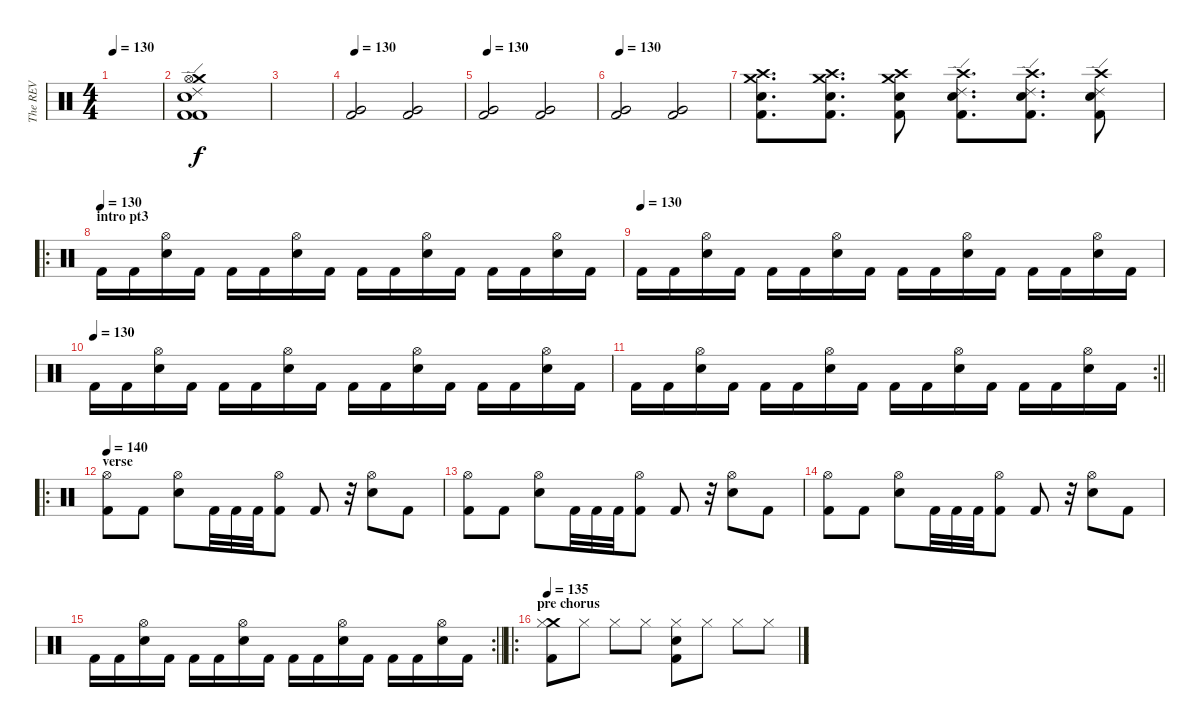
\track ("The REV" "The REV") {instrument percussion}
\staff {score}
\articulation defaults
\ts (4 4)
\tempo 130
\clef neutral
\ks c
|
("Crash medium (hit)" "Hi-Hat (open)" "Electric Snare (hit)" "Kick (hit) 2" "Kick (hit) 2" "Ride (edge) 2").1 |
|
\tempo 130
("Very Low Tom (hit)" "Kick (hit) 2").2 ("Very Low Tom (hit)" "Kick (hit) 2").2 |
\tempo 130
("Very Low Tom (hit)" "Kick (hit) 2").2 ("Very Low Tom (hit)" "Kick (hit) 2").2 |
\tempo 130
("Very Low Tom (hit)" "Kick (hit) 2").2 ("Very Low Tom (hit)" "Kick (hit) 2").2 |
("Crash high (hit)" "Crash medium (hit)" "Electric Snare (hit)" "Kick (hit) 2").8{d} ("Crash high (hit)" "Crash medium (hit)" "Electric Snare (hit)" "Kick (hit) 2").8{d} ("Crash high (hit)" "Crash medium (hit)" "Electric Snare (hit)" "Kick (hit) 2").8 ("Crash high (hit)" "Ride (edge) 2" "Electric Snare (hit)" "Kick (hit) 2").8{d} ("Crash high (hit)" "Ride (edge) 2" "Electric Snare (hit)" "Kick (hit) 2").8{d} ("Crash high (hit)" "Ride (edge) 2" "Electric Snare (hit)" "Kick (hit) 2").8 |
\ro
\section ("" "intro pt3")
\tempo (130)
"Kick (hit) 2".16 "Kick (hit) 2".16 ("Hi-Hat (open)" "Electric Snare (hit)").16 "Kick (hit) 2".16 "Kick (hit) 2".16 "Kick (hit) 2".16 ("Hi-Hat (open)" "Electric Snare (hit)").16 "Kick (hit) 2".16 "Kick (hit) 2".16 "Kick (hit) 2".16 ("Hi-Hat (open)" "Electric Snare (hit)").16 "Kick (hit) 2".16 "Kick (hit) 2".16 "Kick (hit) 2".16 ("Hi-Hat (open)" "Electric Snare (hit)").16 "Kick (hit) 2".16 |
\tempo (130)
"Kick (hit) 2".16 "Kick (hit) 2".16 ("Hi-Hat (open)" "Electric Snare (hit)").16 "Kick (hit) 2".16 "Kick (hit) 2".16 "Kick (hit) 2".16 ("Hi-Hat (open)" "Electric Snare (hit)").16 "Kick (hit) 2".16 "Kick (hit) 2".16 "Kick (hit) 2".16 ("Hi-Hat (open)" "Electric Snare (hit)").16 "Kick (hit) 2".16 "Kick (hit) 2".16 "Kick (hit) 2".16 ("Hi-Hat (open)" "Electric Snare (hit)").16 "Kick (hit) 2".16 |
\tempo (130)
"Kick (hit) 2".16 "Kick (hit) 2".16 ("Hi-Hat (open)" "Electric Snare (hit)").16 "Kick (hit) 2".16 "Kick (hit) 2".16 "Kick (hit) 2".16 ("Hi-Hat (open)" "Electric Snare (hit)").16 "Kick (hit) 2".16 "Kick (hit) 2".16 "Kick (hit) 2".16 ("Hi-Hat (open)" "Electric Snare (hit)").16 "Kick (hit) 2".16 "Kick (hit) 2".16 "Kick (hit) 2".16 ("Hi-Hat (open)" "Electric Snare (hit)").16 "Kick (hit) 2".16 |
\rc 2
\barLineRight lightlight "Kick (hit) 2".16 "Kick (hit) 2".16
("Hi-Hat (open)" "Electric Snare (hit)").16 "Kick (hit) 2".16 "Kick (hit) 2".16 "Kick (hit) 2".16 ("Hi-Hat (open)" "Electric Snare (hit)").16 "Kick (hit) 2".16 "Kick (hit) 2".16 "Kick (hit) 2".16 ("Hi-Hat (open)" "Electric Snare (hit)").16 "Kick (hit) 2".16 "Kick (hit) 2".16 "Kick (hit) 2".16 ("Hi-Hat (open)" "Electric Snare (hit)").16 "Kick (hit) 2".16 |
\ro
\section ("" "verse")
\tempo 140
("Hi-Hat (open)" "Kick (hit) 2").8 "Kick (hit) 2".8 ("Hi-Hat (open)" "Electric Snare (hit)").8 "Kick (hit) 2".32 "Kick (hit) 2".32 "Kick (hit) 2".32 ("Hi-Hat (open)" "Kick (hit) 2").8 "Kick (hit) 2".8 r.32 ("Hi-Hat (open)" "Electric Snare (hit)").8 "Kick (hit) 2".8 |
("Hi-Hat (open)" "Kick (hit) 2").8 "Kick (hit) 2".8 ("Hi-Hat (open)" "Electric Snare (hit)").8 "Kick (hit) 2".32 "Kick (hit) 2".32 "Kick (hit) 2".32 ("Hi-Hat (open)" "Kick (hit) 2").8 "Kick (hit) 2".8 r.32 ("Hi-Hat (open)" "Electric Snare (hit)").8 "Kick (hit) 2".8 |
("Hi-Hat (open)" "Kick (hit) 2").8 "Kick (hit) 2".8 ("Hi-Hat (open)" "Electric Snare (hit)").8 "Kick (hit) 2".32 "Kick (hit) 2".32 "Kick (hit) 2".32 ("Hi-Hat (open)" "Kick (hit) 2").8 "Kick (hit) 2".8 r.32 ("Hi-Hat (open)" "Electric Snare (hit)").8 "Kick (hit) 2".8 |
\rc 2
\barLineRight lightlight "Kick (hit) 2".16 "Kick (hit) 2".16
("Hi-Hat (open)" "Electric Snare (hit)").16 "Kick (hit) 2".16 "Kick (hit) 2".16 "Kick (hit) 2".16 ("Hi-Hat (open)" "Electric Snare (hit)").16 "Kick (hit) 2".16 "Kick (hit) 2".16 "Kick (hit) 2".16 ("Hi-Hat (open)" "Electric Snare (hit)").16 "Kick (hit) 2".16 "Kick (hit) 2".16 "Kick (hit) 2".16 ("Hi-Hat (open)" "Electric Snare (hit)").16 "Kick (hit) 2".16 |
\ro
\section ("" "pre chorus")
\tempo 135
("Crash medium (hit)" "Hi-Hat (closed)" "Kick (hit) 2").8 "Hi-Hat (closed)".8 "Hi-Hat (closed)".8 "Hi-Hat (closed)".8 ("Hi-Hat (closed)" "Electric Snare (hit)" "Kick (hit) 2").8 "Hi-Hat (closed)".8 "Hi-Hat (closed)".8 "Hi-Hat (closed)".8
